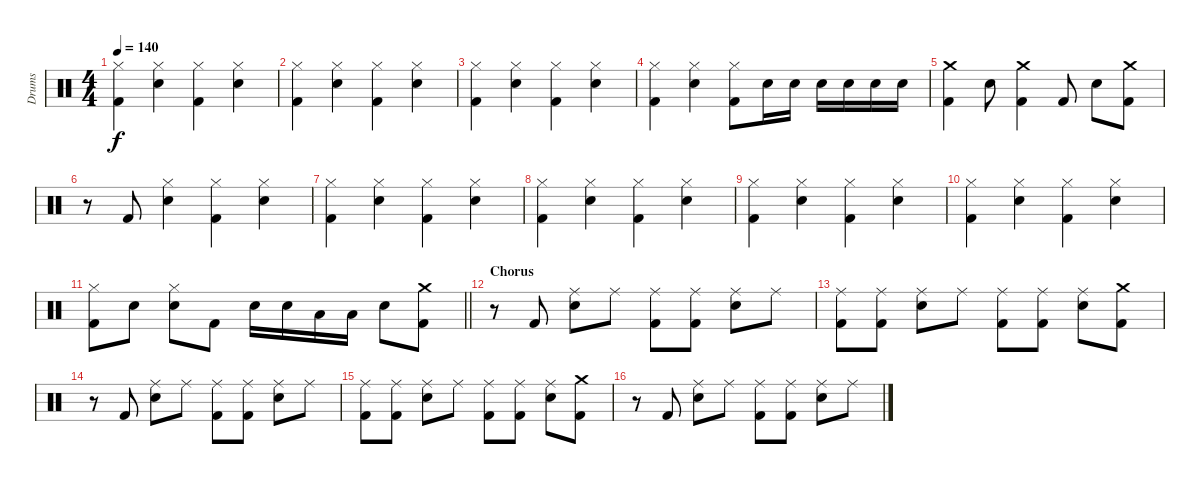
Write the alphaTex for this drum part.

\track ("Drums" "Drums") {instrument percussion}
\staff {score}
\articulation defaults
\ts (4 4)
\tempo 140
\clef neutral
\ks c
("Hi-Hat (closed)" "Kick (hit) 2").4{dy f} ("Hi-Hat (closed)" "Snare (hit) 2").4 ("Hi-Hat (closed)" "Kick (hit) 2").4 ("Hi-Hat (closed)" "Snare (hit) 2").4 |
("Hi-Hat (closed)" "Kick (hit) 2").4 ("Hi-Hat (closed)" "Snare (hit) 2").4 ("Hi-Hat (closed)" "Kick (hit) 2").4 ("Hi-Hat (closed)" "Snare (hit) 2").4 |
("Hi-Hat (closed)" "Kick (hit) 2").4 ("Hi-Hat (closed)" "Snare (hit) 2").4 ("Hi-Hat (closed)" "Kick (hit) 2").4 ("Hi-Hat (closed)" "Snare (hit) 2").4 |
("Hi-Hat (closed)" "Kick (hit) 2").4 ("Hi-Hat (closed)" "Snare (hit) 2").4 ("Hi-Hat (closed)" "Kick (hit) 2").8 "Snare (hit) 2".16 "Snare (hit) 2".16 "Snare (hit) 2".16 "Snare (hit) 2".16 "Snare (hit) 2".16 "Snare (hit) 2".16 |
("Crash medium (hit)" "Kick (hit) 2").4 "Snare (hit) 2".8 ("Crash medium (hit)" "Kick (hit) 2").4 "Kick (hit) 2".8 "Snare (hit) 2".8 ("Crash medium (hit)" "Kick (hit) 2").8 |
r.8 "Kick (hit) 2".8 ("Hi-Hat (closed)" "Snare (hit) 2").4 ("Hi-Hat (closed)" "Kick (hit) 2").4 ("Hi-Hat (closed)" "Snare (hit) 2").4 |
("Hi-Hat (closed)" "Kick (hit) 2").4 ("Hi-Hat (closed)" "Snare (hit) 2").4 ("Hi-Hat (closed)" "Kick (hit) 2").4 ("Hi-Hat (closed)" "Snare (hit) 2").4 |
("Hi-Hat (closed)" "Kick (hit) 2").4 ("Hi-Hat (closed)" "Snare (hit) 2").4 ("Hi-Hat (closed)" "Kick (hit) 2").4 ("Hi-Hat (closed)" "Snare (hit) 2").4 |
("Hi-Hat (closed)" "Kick (hit) 2").4 ("Hi-Hat (closed)" "Snare (hit) 2").4 ("Hi-Hat (closed)" "Kick (hit) 2").4 ("Hi-Hat (closed)" "Snare (hit) 2").4 |
("Hi-Hat (closed)" "Kick (hit) 2").4 ("Hi-Hat (closed)" "Snare (hit) 2").4 ("Hi-Hat (closed)" "Kick (hit) 2").4 ("Hi-Hat (closed)" "Snare (hit) 2").4 |
\barLineRight lightlight
("Hi-Hat (closed)" "Kick (hit) 2").8 "Snare (hit) 2".8 ("Hi-Hat (closed)" "Snare (hit) 2").8 "Kick (hit) 2".8 "Snare (hit) 2".16 "Snare (hit) 2".16 "Low Tom (hit)".16 "Low Tom (hit)".16 "Snare (hit) 2".8 ("Crash medium (hit)" "Kick (hit) 2").8 |
\section ("" "Chorus")
r.8 "Kick (hit) 2".8 ("Ride (middle)" "Snare (hit) 2").8 "Ride (middle)".8 ("Ride (middle)" "Kick (hit) 2").8 ("Ride (middle)" "Kick (hit) 2").8 ("Ride (middle)" "Snare (hit) 2").8 "Ride (middle)".8 |
("Ride (middle)" "Kick (hit) 2").8 ("Ride (middle)" "Kick (hit) 2").8 ("Ride (middle)" "Snare (hit) 2").8 "Ride (middle)".8 ("Ride (middle)" "Kick (hit) 2").8 ("Ride (middle)" "Kick (hit) 2").8 ("Ride (middle)" "Snare (hit) 2").8 ("Crash medium (hit)" "Kick (hit) 2").8 |
r.8 "Kick (hit) 2".8 ("Ride (middle)" "Snare (hit) 2").8 "Ride (middle)".8 ("Ride (middle)" "Kick (hit) 2").8 ("Ride (middle)" "Kick (hit) 2").8 ("Ride (middle)" "Snare (hit) 2").8 "Ride (middle)".8 |
("Ride (middle)" "Kick (hit) 2").8 ("Ride (middle)" "Kick (hit) 2").8 ("Ride (middle)" "Snare (hit) 2").8 "Ride (middle)".8 ("Ride (middle)" "Kick (hit) 2").8 ("Ride (middle)" "Kick (hit) 2").8 ("Ride (middle)" "Snare (hit) 2").8 ("Crash medium (hit)" "Kick (hit) 2").8 |
r.8 "Kick (hit) 2".8 ("Ride (middle)" "Snare (hit) 2").8 "Ride (middle)".8 ("Ride (middle)" "Kick (hit) 2").8 ("Ride (middle)" "Kick (hit) 2").8 ("Ride (middle)" "Snare (hit) 2").8 "Ride (middle)".8
